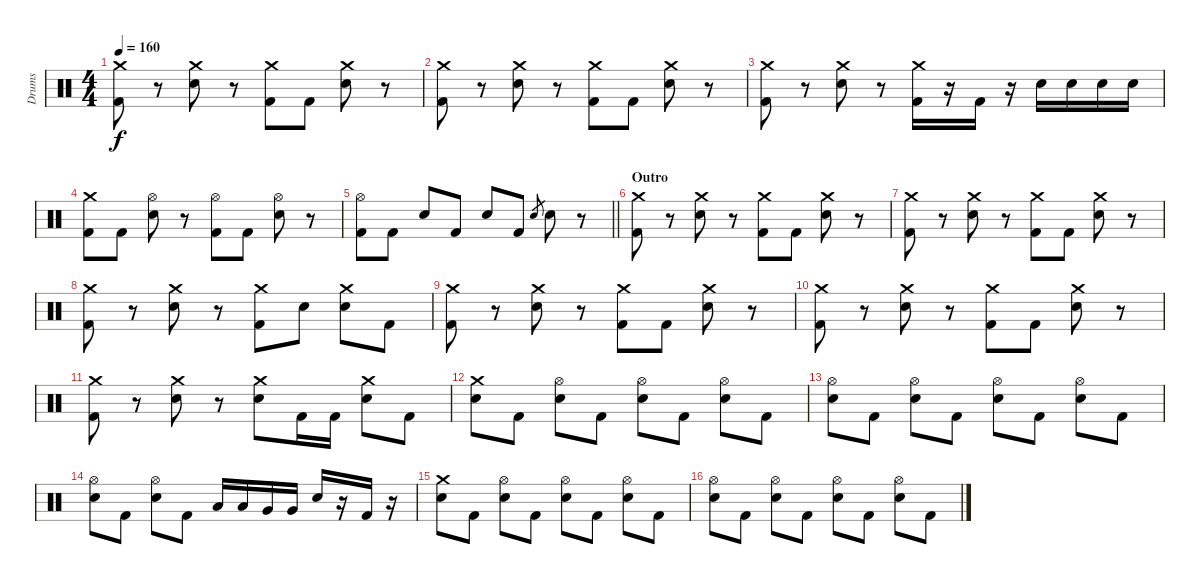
\track ("Drums" "Drums") {instrument percussion}
\staff {score}
\articulation defaults
\ts (4 4)
\tempo 160
\clef neutral
\ks c
("Crash medium (hit)" "Kick (hit) 2").8{dy f} r.8 ("Crash medium (hit)" "Electric Snare (hit)").8 r.8 ("Crash medium (hit)" "Kick (hit) 2").8 "Kick (hit) 2".8 ("Crash medium (hit)" "Electric Snare (hit)").8 r.8 |
("Crash medium (hit)" "Kick (hit) 2").8 r.8 ("Crash medium (hit)" "Electric Snare (hit)").8 r.8 ("Crash medium (hit)" "Kick (hit) 2").8 "Kick (hit) 2".8 ("Crash medium (hit)" "Electric Snare (hit)").8 r.8 |
("Crash medium (hit)" "Kick (hit) 2").8 r.8 ("Crash medium (hit)" "Electric Snare (hit)").8 r.8 ("Crash medium (hit)" "Kick (hit) 2").16 r.16 "Kick (hit) 2".16 r.16 "Electric Snare (hit)".16 "Electric Snare (hit)".16 "Electric Snare (hit)".16 "Electric Snare (hit)".16 |
("Crash medium (hit)" "Kick (hit) 2").8 "Kick (hit) 2".8 ("Hi-Hat (open)" "Electric Snare (hit)").8 r.8 ("Hi-Hat (open)" "Kick (hit) 2").8 "Kick (hit) 2".8 ("Hi-Hat (open)" "Electric Snare (hit)").8 r.8 |
\barLineRight lightlight
("Hi-Hat (open)" "Kick (hit) 2").8 "Kick (hit) 2".8 "Electric Snare (hit)".8 "Kick (hit) 2".8 "Electric Snare (hit)".8 "Kick (hit) 2".8 "Electric Snare (hit)".8{gr} "Electric Snare (hit)".8 r.8 |
\section ("" "Outro")
("Crash medium (hit)" "Kick (hit) 2").8 r.8 ("Crash medium (hit)" "Electric Snare (hit)").8 r.8 ("Crash medium (hit)" "Kick (hit) 2").8 "Kick (hit) 2".8 ("Crash medium (hit)" "Electric Snare (hit)").8 r.8 |
("Crash medium (hit)" "Kick (hit) 2").8 r.8 ("Crash medium (hit)" "Electric Snare (hit)").8 r.8 ("Crash medium (hit)" "Kick (hit) 2").8 "Kick (hit) 2".8 ("Crash medium (hit)" "Electric Snare (hit)").8 r.8 |
("Crash medium (hit)" "Kick (hit) 2").8 r.8 ("Crash medium (hit)" "Electric Snare (hit)").8 r.8 ("Crash medium (hit)" "Kick (hit) 2").8 "Electric Snare (hit)".8 ("Crash medium (hit)" "Electric Snare (hit)").8 "Kick (hit) 2".8 |
("Crash medium (hit)" "Kick (hit) 2").8 r.8 ("Crash medium (hit)" "Electric Snare (hit)").8 r.8 ("Crash medium (hit)" "Kick (hit) 2").8 "Kick (hit) 2".8 ("Crash medium (hit)" "Electric Snare (hit)").8 r.8 |
("Crash medium (hit)" "Kick (hit) 2").8 r.8 ("Crash medium (hit)" "Electric Snare (hit)").8 r.8 ("Crash medium (hit)" "Kick (hit) 2").8 "Kick (hit) 2".8 ("Crash medium (hit)" "Electric Snare (hit)").8 r.8 |
("Crash medium (hit)" "Kick (hit) 2").8 r.8 ("Crash medium (hit)" "Electric Snare (hit)").8 r.8 ("Crash medium (hit)" "Electric Snare (hit)").8 "Kick (hit) 2".16 "Kick (hit) 2".16 ("Crash medium (hit)" "Electric Snare (hit)").8 "Kick (hit) 2".8 |
("Crash medium (hit)" "Electric Snare (hit)").8 "Kick (hit) 2".8 ("Hi-Hat (open)" "Electric Snare (hit)").8 "Kick (hit) 2".8 ("Hi-Hat (open)" "Electric Snare (hit)").8 "Kick (hit) 2".8 ("Hi-Hat (open)" "Electric Snare (hit)").8 "Kick (hit) 2".8 |
("Hi-Hat (open)" "Electric Snare (hit)").8 "Kick (hit) 2".8 ("Hi-Hat (open)" "Electric Snare (hit)").8 "Kick (hit) 2".8 ("Hi-Hat (open)" "Electric Snare (hit)").8 "Kick (hit) 2".8 ("Hi-Hat (open)" "Electric Snare (hit)").8 "Kick (hit) 2".8 |
("Hi-Hat (open)" "Electric Snare (hit)").8 "Kick (hit) 2".8 ("Hi-Hat (open)" "Electric Snare (hit)").8 "Kick (hit) 2".8 "Low Tom (hit)".16 "Low Tom (hit)".16 "Very Low Tom (hit)".16 "Very Low Tom (hit)".16 "Electric Snare (hit)".16 r.16 "Kick (hit) 2".16 r.16 |
("Crash medium (hit)" "Electric Snare (hit)").8 "Kick (hit) 2".8 ("Hi-Hat (open)" "Electric Snare (hit)").8 "Kick (hit) 2".8 ("Hi-Hat (open)" "Electric Snare (hit)").8 "Kick (hit) 2".8 ("Hi-Hat (open)" "Electric Snare (hit)").8 "Kick (hit) 2".8 |
("Hi-Hat (open)" "Electric Snare (hit)").8 "Kick (hit) 2".8 ("Hi-Hat (open)" "Electric Snare (hit)").8 "Kick (hit) 2".8 ("Hi-Hat (open)" "Electric Snare (hit)").8 "Kick (hit) 2".8 ("Hi-Hat (open)" "Electric Snare (hit)").8 "Kick (hit) 2".8
